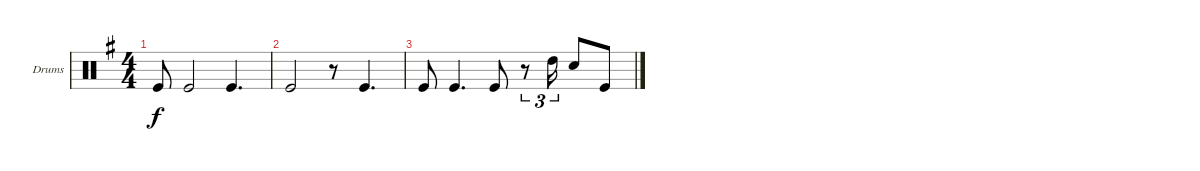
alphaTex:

\defaultSystemsLayout 4
\bracketExtendMode groupsimilarinstruments
\firstSystemTrackNameOrientation horizontal
\otherSystemsTrackNameOrientation horizontal
\track ("Drums" "Drums") {instrument percussion}
\staff {score}
\articulation defaults
\ts (4 4)
\tempo (81.0588 hide)
\clef neutral
\ks eminor "Kick (hit)".8{dy f} "Kick (hit)".2 "Kick (hit)".4{d}
|
"Kick (hit)".2 r.8 "Kick (hit)".4{d} |
"Kick (hit)".8 "Kick (hit)".4{d} "Kick (hit)".8 r.8{tu (3 2)} "High Tom (hit)".16{tu (3 2)} "Snare (hit) 2".8 "Kick (hit)".8
